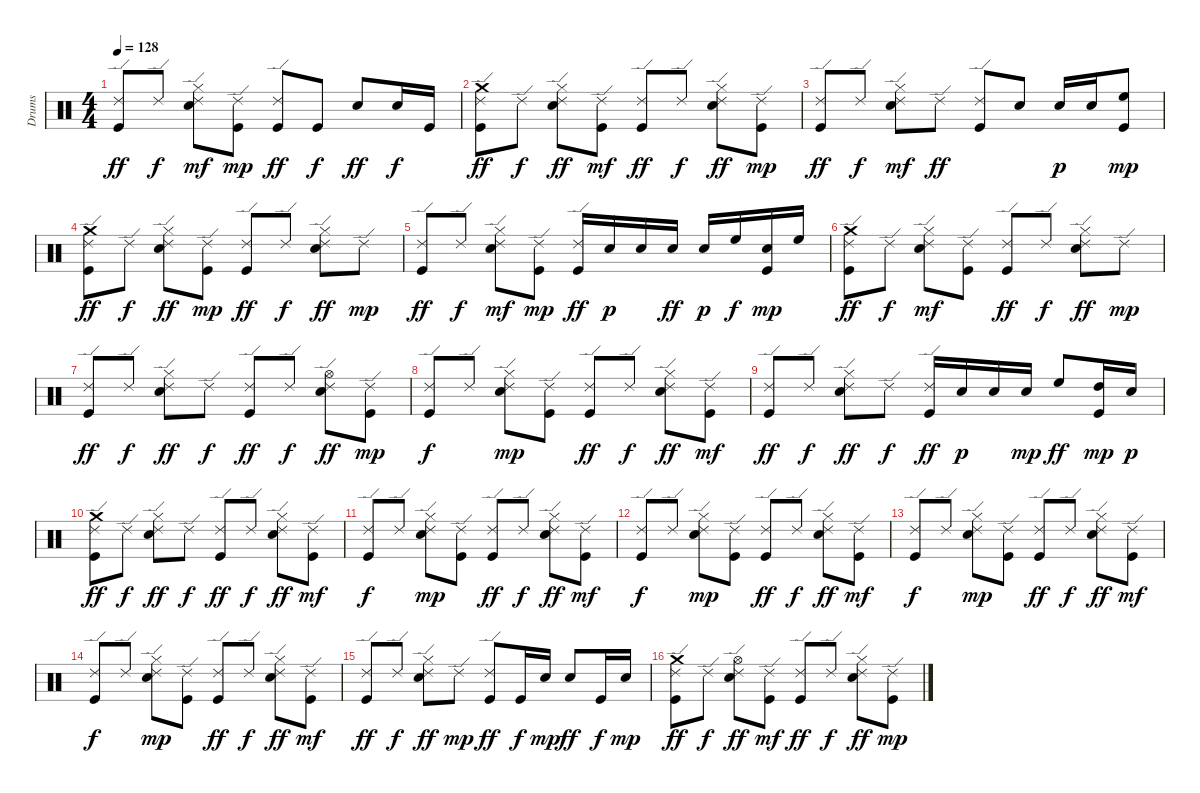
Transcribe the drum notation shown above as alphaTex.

\track ("Drums" "Drums") {instrument percussion}
\staff {score}
\articulation defaults
\ts (4 4)
\tempo 128
\clef neutral
\ks c
("Ride (edge) 2" "Kick (hit)").8{dy ff} "Ride (edge) 2".8{dy f} ("Electric Snare (hit)" "Hi-Hat (closed)" "Ride (edge) 2").8{dy mf} ("Ride (edge) 2" "Kick (hit)").8{dy mp} ("Ride (edge) 2" "Kick (hit)").8{dy ff} "Kick (hit)".8{dy f} "Electric Snare (hit)".8{dy ff} "Electric Snare (hit)".16{dy f} "Kick (hit)".16 |
("Crash medium (hit)" "Ride (edge) 2" "Kick (hit)").8{dy ff} "Ride (edge) 2".8{dy f} ("Electric Snare (hit)" "Hi-Hat (closed)" "Ride (edge) 2").8{dy ff} ("Ride (edge) 2" "Kick (hit)").8{dy mf} ("Ride (edge) 2" "Kick (hit)").8{dy ff} "Ride (edge) 2".8{dy f} ("Electric Snare (hit)" "Hi-Hat (closed)" "Ride (edge) 2").8{dy ff} ("Ride (edge) 2" "Kick (hit)").8{dy mp} |
("Ride (edge) 2" "Kick (hit)").8{dy ff} "Ride (edge) 2".8{dy f} ("Electric Snare (hit)" "Hi-Hat (closed)" "Ride (edge) 2").8{dy mf} "Ride (edge) 2".8{dy ff} ("Ride (edge) 2" "Kick (hit)").8 "Electric Snare (hit)".8 "Electric Snare (hit)".16{dy p} "Electric Snare (hit)".16 ("High Floor Tom (hit)" "Kick (hit)").8{dy mp} |
("Crash medium (hit)" "Ride (edge) 2" "Kick (hit)").8{dy ff} "Ride (edge) 2".8{dy f} ("Electric Snare (hit)" "Hi-Hat (closed)" "Ride (edge) 2").8{dy ff} ("Ride (edge) 2" "Kick (hit)").8{dy mp} ("Ride (edge) 2" "Kick (hit)").8{dy ff} "Ride (edge) 2".8{dy f} ("Electric Snare (hit)" "Hi-Hat (closed)" "Ride (edge) 2").8{dy ff} "Ride (edge) 2".8{dy mp} |
("Ride (edge) 2" "Kick (hit)").8{dy ff} "Ride (edge) 2".8{dy f} ("Electric Snare (hit)" "Hi-Hat (closed)" "Ride (edge) 2").8{dy mf} ("Ride (edge) 2" "Kick (hit)").8{dy mp} ("Ride (edge) 2" "Kick (hit)").16{dy ff} "Electric Snare (hit)".16{dy p} "Electric Snare (hit)".16 "Electric Snare (hit)".16{dy ff} "Electric Snare (hit)".16{dy p} "High Floor Tom (hit)".16{dy f} ("Electric Snare (hit)" "Kick (hit)").16{dy mp} "High Floor Tom (hit)".16 |
("Crash medium (hit)" "Ride (edge) 2" "Kick (hit)").8{dy ff} "Ride (edge) 2".8{dy f} ("Electric Snare (hit)" "Hi-Hat (closed)" "Ride (edge) 2").8{dy mf} ("Ride (edge) 2" "Kick (hit)").8 ("Ride (edge) 2" "Kick (hit)").8{dy ff} "Ride (edge) 2".8{dy f} ("Electric Snare (hit)" "Hi-Hat (closed)" "Ride (edge) 2").8{dy ff} "Ride (edge) 2".8{dy mp} |
("Ride (edge) 2" "Kick (hit)").8{dy ff} "Ride (edge) 2".8{dy f} ("Electric Snare (hit)" "Hi-Hat (closed)" "Ride (edge) 2").8{dy ff} "Ride (edge) 2".8{dy f} ("Ride (edge) 2" "Kick (hit)").8{dy ff} "Ride (edge) 2".8{dy f} ("Electric Snare (hit)" "Hi-Hat (open)" "Ride (edge) 2").8{dy ff} ("Ride (edge) 2" "Kick (hit)").8{dy mp} |
("Ride (edge) 2" "Kick (hit)").8{dy f} "Ride (edge) 2".8 ("Electric Snare (hit)" "Hi-Hat (closed)" "Ride (edge) 2").8{dy mp} ("Ride (edge) 2" "Kick (hit)").8 ("Ride (edge) 2" "Kick (hit)").8{dy ff} "Ride (edge) 2".8{dy f} ("Electric Snare (hit)" "Hi-Hat (closed)" "Ride (edge) 2").8{dy ff} ("Ride (edge) 2" "Kick (hit)").8{dy mf} |
("Ride (edge) 2" "Kick (hit)").8{dy ff} "Ride (edge) 2".8{dy f} ("Electric Snare (hit)" "Hi-Hat (closed)" "Ride (edge) 2").8{dy ff} "Ride (edge) 2".8{dy f} ("Ride (edge) 2" "Kick (hit)").16{dy ff} "Electric Snare (hit)".16{dy p} "Electric Snare (hit)".16 "Electric Snare (hit)".16{dy mp} "High Floor Tom (hit)".8{dy ff} ("High Tom (hit)" "Kick (hit)").16{dy mp} "Electric Snare (hit)".16{dy p} |
("Crash medium (hit)" "Ride (edge) 2" "Kick (hit)").8{dy ff} "Ride (edge) 2".8{dy f} ("Electric Snare (hit)" "Hi-Hat (closed)" "Ride (edge) 2").8{dy ff} "Ride (edge) 2".8{dy f} ("Ride (edge) 2" "Kick (hit)").8{dy ff} "Ride (edge) 2".8{dy f} ("Electric Snare (hit)" "Hi-Hat (closed)" "Ride (edge) 2").8{dy ff} ("Ride (edge) 2" "Kick (hit)").8{dy mf} |
("Ride (edge) 2" "Kick (hit)").8{dy f} "Ride (edge) 2".8 ("Electric Snare (hit)" "Hi-Hat (closed)" "Ride (edge) 2").8{dy mp} ("Ride (edge) 2" "Kick (hit)").8 ("Ride (edge) 2" "Kick (hit)").8{dy ff} "Ride (edge) 2".8{dy f} ("Electric Snare (hit)" "Hi-Hat (closed)" "Ride (edge) 2").8{dy ff} ("Ride (edge) 2" "Kick (hit)").8{dy mf} |
("Ride (edge) 2" "Kick (hit)").8{dy f} "Ride (edge) 2".8 ("Electric Snare (hit)" "Hi-Hat (closed)" "Ride (edge) 2").8{dy mp} ("Ride (edge) 2" "Kick (hit)").8 ("Ride (edge) 2" "Kick (hit)").8{dy ff} "Ride (edge) 2".8{dy f} ("Electric Snare (hit)" "Hi-Hat (closed)" "Ride (edge) 2").8{dy ff} ("Ride (edge) 2" "Kick (hit)").8{dy mf} |
("Ride (edge) 2" "Kick (hit)").8{dy f} "Ride (edge) 2".8 ("Electric Snare (hit)" "Hi-Hat (closed)" "Ride (edge) 2").8{dy mp} ("Ride (edge) 2" "Kick (hit)").8 ("Ride (edge) 2" "Kick (hit)").8{dy ff} "Ride (edge) 2".8{dy f} ("Electric Snare (hit)" "Hi-Hat (closed)" "Ride (edge) 2").8{dy ff} ("Ride (edge) 2" "Kick (hit)").8{dy mf} |
("Ride (edge) 2" "Kick (hit)").8{dy f} "Ride (edge) 2".8 ("Electric Snare (hit)" "Hi-Hat (closed)" "Ride (edge) 2").8{dy mp} ("Ride (edge) 2" "Kick (hit)").8 ("Ride (edge) 2" "Kick (hit)").8{dy ff} "Ride (edge) 2".8{dy f} ("Electric Snare (hit)" "Hi-Hat (closed)" "Ride (edge) 2").8{dy ff} ("Ride (edge) 2" "Kick (hit)").8{dy mf} |
("Ride (edge) 2" "Kick (hit)").8{dy ff} "Ride (edge) 2".8{dy f} ("Electric Snare (hit)" "Hi-Hat (closed)" "Ride (edge) 2").8{dy ff} "Ride (edge) 2".8{dy mp} ("Ride (edge) 2" "Kick (hit)").8{dy ff} "Kick (hit)".16{dy f} "Electric Snare (hit)".16{dy mp} "Electric Snare (hit)".8{dy ff} "Kick (hit)".16{dy f} "Electric Snare (hit)".16{dy mp} |
("Crash medium (hit)" "Ride (edge) 2" "Kick (hit)").8{dy ff} "Ride (edge) 2".8{dy f} ("Electric Snare (hit)" "Hi-Hat (open)" "Ride (edge) 2").8{dy ff} ("Ride (edge) 2" "Kick (hit)").8{dy mf} ("Ride (edge) 2" "Kick (hit)").8{dy ff} "Ride (edge) 2".8{dy f} ("Electric Snare (hit)" "Hi-Hat (closed)" "Ride (edge) 2").8{dy ff} ("Ride (edge) 2" "Kick (hit)").8{dy mp}
